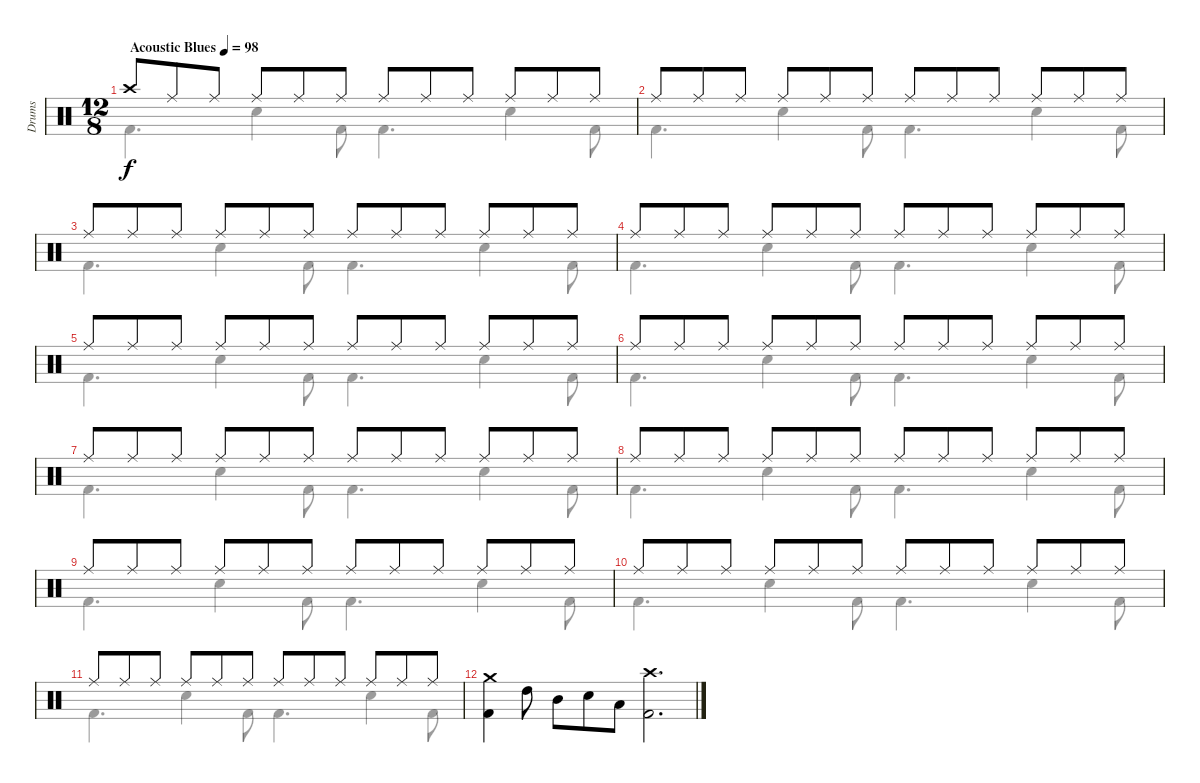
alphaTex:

\track ("Drums" "Drums") {instrument percussion}
\staff {score}
\articulation defaults
\voice
\ts (12 8)
\tempo (98 "Acoustic Blues")
\clef neutral
\ks c "Crash high (hit)".8{dy f} "Ride (middle)".8 "Ride (middle)".8 "Ride (middle)".8 "Ride (middle)".8 "Ride (middle)".8 "Ride (middle)".8 "Ride (middle)".8 "Ride (middle)".8 "Ride (middle)".8 "Ride (middle)".8 "Ride (middle)".8
|
"Ride (middle)".8 "Ride (middle)".8 "Ride (middle)".8 "Ride (middle)".8 "Ride (middle)".8 "Ride (middle)".8 "Ride (middle)".8 "Ride (middle)".8 "Ride (middle)".8 "Ride (middle)".8 "Ride (middle)".8 "Ride (middle)".8 |
"Ride (middle)".8 "Ride (middle)".8 "Ride (middle)".8 "Ride (middle)".8 "Ride (middle)".8 "Ride (middle)".8 "Ride (middle)".8 "Ride (middle)".8 "Ride (middle)".8 "Ride (middle)".8 "Ride (middle)".8 "Ride (middle)".8 |
"Ride (middle)".8 "Ride (middle)".8 "Ride (middle)".8 "Ride (middle)".8 "Ride (middle)".8 "Ride (middle)".8 "Ride (middle)".8 "Ride (middle)".8 "Ride (middle)".8 "Ride (middle)".8 "Ride (middle)".8 "Ride (middle)".8 |
"Ride (middle)".8 "Ride (middle)".8 "Ride (middle)".8 "Ride (middle)".8 "Ride (middle)".8 "Ride (middle)".8 "Ride (middle)".8 "Ride (middle)".8 "Ride (middle)".8 "Ride (middle)".8 "Ride (middle)".8 "Ride (middle)".8 |
"Ride (middle)".8 "Ride (middle)".8 "Ride (middle)".8 "Ride (middle)".8 "Ride (middle)".8 "Ride (middle)".8 "Ride (middle)".8 "Ride (middle)".8 "Ride (middle)".8 "Ride (middle)".8 "Ride (middle)".8 "Ride (middle)".8 |
"Ride (middle)".8 "Ride (middle)".8 "Ride (middle)".8 "Ride (middle)".8 "Ride (middle)".8 "Ride (middle)".8 "Ride (middle)".8 "Ride (middle)".8 "Ride (middle)".8 "Ride (middle)".8 "Ride (middle)".8 "Ride (middle)".8 |
"Ride (middle)".8 "Ride (middle)".8 "Ride (middle)".8 "Ride (middle)".8 "Ride (middle)".8 "Ride (middle)".8 "Ride (middle)".8 "Ride (middle)".8 "Ride (middle)".8 "Ride (middle)".8 "Ride (middle)".8 "Ride (middle)".8 |
"Ride (middle)".8 "Ride (middle)".8 "Ride (middle)".8 "Ride (middle)".8 "Ride (middle)".8 "Ride (middle)".8 "Ride (middle)".8 "Ride (middle)".8 "Ride (middle)".8 "Ride (middle)".8 "Ride (middle)".8 "Ride (middle)".8 |
"Ride (middle)".8 "Ride (middle)".8 "Ride (middle)".8 "Ride (middle)".8 "Ride (middle)".8 "Ride (middle)".8 "Ride (middle)".8 "Ride (middle)".8 "Ride (middle)".8 "Ride (middle)".8 "Ride (middle)".8 "Ride (middle)".8 |
"Ride (middle)".8 "Ride (middle)".8 "Ride (middle)".8 "Ride (middle)".8 "Ride (middle)".8 "Ride (middle)".8 "Ride (middle)".8 "Ride (middle)".8 "Ride (middle)".8 "Ride (middle)".8 "Ride (middle)".8 "Ride (middle)".8 |
("Crash medium (hit)" "Kick (hit) 2").4 "High Tom (hit)".8 "Mid Tom (hit)".8 "Electric Snare (hit)".8 "Low Tom (hit)".8 ("Crash high (hit)" "Kick (hit) 2").2{d} |
\voice
\clef neutral
\ottava regular
\simile none
\ks c "Kick (hit) 2".4{d dy f} "Electric Snare (hit)".4 "Kick (hit) 2".8 "Kick (hit) 2".4{d} "Electric Snare (hit)".4 "Kick (hit) 2".8
|
"Kick (hit) 2".4{d} "Electric Snare (hit)".4 "Kick (hit) 2".8 "Kick (hit) 2".4{d} "Electric Snare (hit)".4 "Kick (hit) 2".8 |
"Kick (hit) 2".4{d} "Electric Snare (hit)".4 "Kick (hit) 2".8 "Kick (hit) 2".4{d} "Electric Snare (hit)".4 "Kick (hit) 2".8 |
"Kick (hit) 2".4{d} "Electric Snare (hit)".4 "Kick (hit) 2".8 "Kick (hit) 2".4{d} "Electric Snare (hit)".4 "Kick (hit) 2".8 |
"Kick (hit) 2".4{d} "Electric Snare (hit)".4 "Kick (hit) 2".8 "Kick (hit) 2".4{d} "Electric Snare (hit)".4 "Kick (hit) 2".8 |
"Kick (hit) 2".4{d} "Electric Snare (hit)".4 "Kick (hit) 2".8 "Kick (hit) 2".4{d} "Electric Snare (hit)".4 "Kick (hit) 2".8 |
"Kick (hit) 2".4{d} "Electric Snare (hit)".4 "Kick (hit) 2".8 "Kick (hit) 2".4{d} "Electric Snare (hit)".4 "Kick (hit) 2".8 |
"Kick (hit) 2".4{d} "Electric Snare (hit)".4 "Kick (hit) 2".8 "Kick (hit) 2".4{d} "Electric Snare (hit)".4 "Kick (hit) 2".8 |
"Kick (hit) 2".4{d} "Electric Snare (hit)".4 "Kick (hit) 2".8 "Kick (hit) 2".4{d} "Electric Snare (hit)".4 "Kick (hit) 2".8 |
"Kick (hit) 2".4{d} "Electric Snare (hit)".4 "Kick (hit) 2".8 "Kick (hit) 2".4{d} "Electric Snare (hit)".4 "Kick (hit) 2".8 |
"Kick (hit) 2".4{d} "Electric Snare (hit)".4 "Kick (hit) 2".8 "Kick (hit) 2".4{d} "Electric Snare (hit)".4 "Kick (hit) 2".8 |
|
